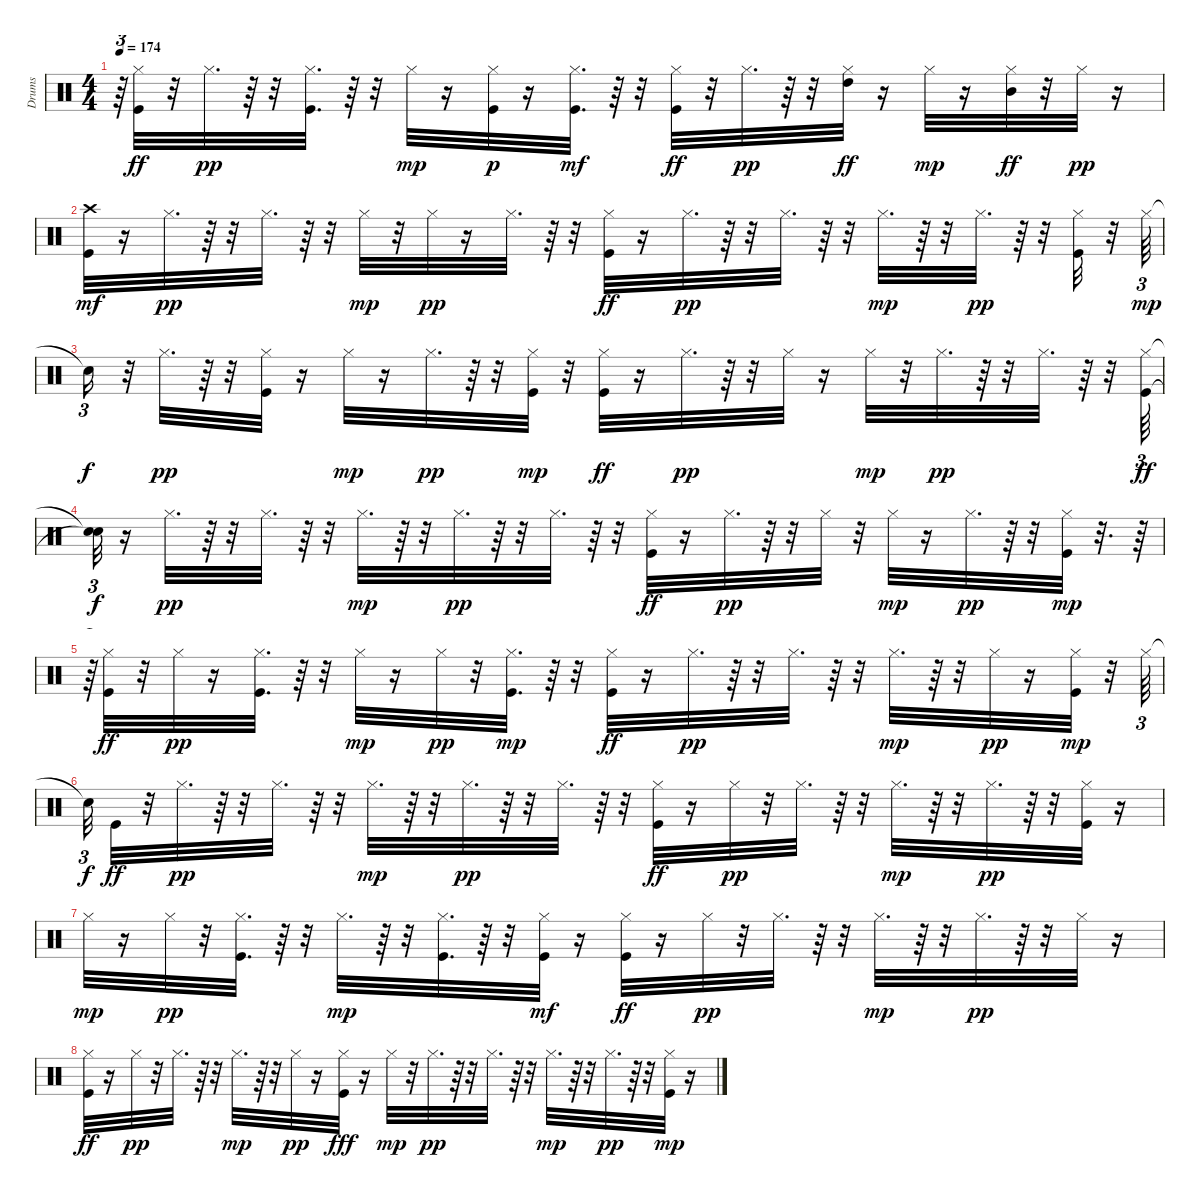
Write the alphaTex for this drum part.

\track ("Drums" "Drums") {instrument percussion}
\staff {score}
\articulation defaults
\ts (4 4)
\tempo 174
\clef neutral
\ks c
r.64{tu (3 2) dy mp} ("Hi-Hat (closed)" "Kick (hit)").32{dy ff} r.32 "Hi-Hat (closed)".32{d dy pp} r.64 r.32 ("Hi-Hat (closed)" "Kick (hit)").32{d} r.64 r.32 "Hi-Hat (closed)".32{dy mp} r.16 ("Hi-Hat (closed)" "Kick (hit)").32{dy p} r.16 ("Hi-Hat (closed)" "Kick (hit)").32{d dy mf} r.64 r.32 ("Hi-Hat (closed)" "Kick (hit)").32{dy ff} r.32 "Hi-Hat (closed)".32{d dy pp} r.64 r.32 ("Hi-Hat (closed)" "High Tom (hit)").32{dy ff} r.16 "Hi-Hat (closed)".32{dy mp} r.16 ("Hi-Hat (closed)" "Mid Tom (hit)").32{dy ff} r.32 "Hi-Hat (closed)".32{dy pp} r.16 |
("Kick (hit)" "Crash high (hit)").32{dy mf} r.16 "Hi-Hat (closed)".32{d dy pp} r.64 r.32 "Hi-Hat (closed)".32{d} r.64 r.32 "Hi-Hat (closed)".32{dy mp} r.32 "Hi-Hat (closed)".32{dy pp} r.16 "Hi-Hat (closed)".32{d} r.64 r.32 ("Hi-Hat (closed)" "Kick (hit)").32{dy ff} r.16 "Hi-Hat (closed)".32{d dy pp} r.64 r.32 "Hi-Hat (closed)".32{d} r.64 r.32 "Hi-Hat (closed)".32{d dy mp} r.64 r.32 "Hi-Hat (closed)".32{d dy pp} r.64 r.32 ("Hi-Hat (closed)" "Kick (hit)").32 r.32 "Hi-Hat (closed)".64{tu (3 2) dy mp} |
"Snare (hit)"{t}.16{tu (3 2) dy f} r.32 "Hi-Hat (closed)".32{d dy pp} r.64 r.32 ("Hi-Hat (closed)" "Kick (hit)").32 r.16 "Hi-Hat (closed)".32{dy mp} r.16 "Hi-Hat (closed)".32{d dy pp} r.64 r.32 ("Hi-Hat (closed)" "Kick (hit)").32{dy mp} r.32 ("Hi-Hat (closed)" "Kick (hit)").32{dy ff} r.16 "Hi-Hat (closed)".32{d dy pp} r.64 r.32 "Hi-Hat (closed)".32 r.16 "Hi-Hat (closed)".32{dy mp} r.32 "Hi-Hat (closed)".32{d dy pp} r.64 r.32 "Hi-Hat (closed)".32{d} r.64 r.32 ("Hi-Hat (closed)" "Kick (hit)").64{tu (3 2) dy ff} |
("Snare (hit)"{t} "Snare (hit)"{t}).32{tu (3 2) dy f} r.16 "Hi-Hat (closed)".32{d dy pp} r.64 r.32 "Hi-Hat (closed)".32{d} r.64 r.32 "Hi-Hat (closed)".32{d dy mp} r.64 r.32 "Hi-Hat (closed)".32{d dy pp} r.64 r.32 "Hi-Hat (closed)".32{d} r.64 r.32 ("Hi-Hat (closed)" "Kick (hit)").32{dy ff} r.16 "Hi-Hat (closed)".32{d dy pp} r.64 r.32 "Hi-Hat (closed)".32 r.32 "Hi-Hat (closed)".32{dy mp} r.16 "Hi-Hat (closed)".32{d dy pp} r.64 r.32 ("Hi-Hat (closed)" "Kick (hit)").32{dy mp} r.32{d} r.64 |
r.64{tu (3 2)} ("Hi-Hat (closed)" "Kick (hit)").32{dy ff} r.32 "Hi-Hat (closed)".32{dy pp} r.16 ("Hi-Hat (closed)" "Kick (hit)").32{d} r.64 r.32 "Hi-Hat (closed)".32{dy mp} r.16 "Hi-Hat (closed)".32{dy pp} r.32 ("Hi-Hat (closed)" "Kick (hit)").32{d dy mp} r.64 r.32 ("Hi-Hat (closed)" "Kick (hit)").32{dy ff} r.16 "Hi-Hat (closed)".32{d dy pp} r.64 r.32 "Hi-Hat (closed)".32{d} r.64 r.32 "Hi-Hat (closed)".32{d dy mp} r.64 r.32 "Hi-Hat (closed)".32{dy pp} r.16 ("Hi-Hat (closed)" "Kick (hit)").32{dy mp} r.32 "Hi-Hat (closed)".64{tu (3 2)} |
"Snare (hit)"{t}.32{tu (3 2) dy f} "Kick (hit)".32{dy ff} r.32 "Hi-Hat (closed)".32{d dy pp} r.64 r.32 "Hi-Hat (closed)".32{d} r.64 r.32 "Hi-Hat (closed)".32{d dy mp} r.64 r.32 "Hi-Hat (closed)".32{d dy pp} r.64 r.32 "Hi-Hat (closed)".32{d} r.64 r.32 ("Hi-Hat (closed)" "Kick (hit)").32{dy ff} r.16 "Hi-Hat (closed)".32{dy pp} r.32 "Hi-Hat (closed)".32{d} r.64 r.32 "Hi-Hat (closed)".32{d dy mp} r.64 r.32 "Hi-Hat (closed)".32{d dy pp} r.64 r.32 ("Hi-Hat (closed)" "Kick (hit)").32 r.16 |
"Hi-Hat (closed)".32{dy mp} r.16 "Hi-Hat (closed)".32{dy pp} r.32 ("Hi-Hat (closed)" "Kick (hit)").32{d} r.64 r.32 "Hi-Hat (closed)".32{d dy mp} r.64 r.32 ("Hi-Hat (closed)" "Kick (hit)").32{d} r.64 r.32 ("Hi-Hat (closed)" "Kick (hit)").32{dy mf} r.16 ("Hi-Hat (closed)" "Kick (hit)").32{dy ff} r.16 "Hi-Hat (closed)".32{dy pp} r.32 "Hi-Hat (closed)".32{d} r.64 r.32 "Hi-Hat (closed)".32{d dy mp} r.64 r.32 "Hi-Hat (closed)".32{d dy pp} r.64 r.32 "Hi-Hat (closed)".32 r.16 |
("Hi-Hat (closed)" "Kick (hit)").32{dy ff} r.16 "Hi-Hat (closed)".32{dy pp} r.32 "Hi-Hat (closed)".32{d} r.64 r.32 "Hi-Hat (closed)".32{d dy mp} r.64 r.32 "Hi-Hat (closed)".32{dy pp} r.16 ("Hi-Hat (closed)" "Kick (hit)").32{dy fff} r.16 "Hi-Hat (closed)".32{dy mp} r.32 "Hi-Hat (closed)".32{d dy pp} r.64 r.32 "Hi-Hat (closed)".32{d} r.64 r.32 "Hi-Hat (closed)".32{d dy mp} r.64 r.32 "Hi-Hat (closed)".32{d dy pp} r.64 r.32 ("Hi-Hat (closed)" "Kick (hit)").32{dy mp} r.16
